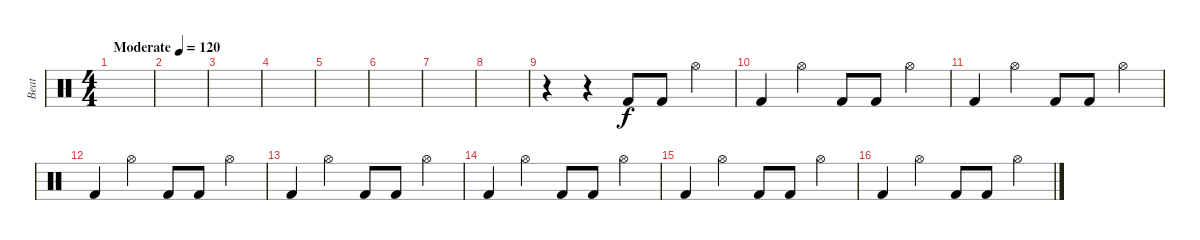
\track ("Beat" "Beat") {instrument percussion}
\staff {score}
\articulation defaults
\ts (4 4)
\tempo (120 "Moderate")
\clef neutral
\ks c
|
|
|
|
|
|
|
|
r.4 r.4 "Kick (hit) 2".8 "Kick (hit) 2".8 "Hi-Hat (open)".4 |
"Kick (hit) 2".4 "Hi-Hat (open)".4 "Kick (hit) 2".8 "Kick (hit) 2".8 "Hi-Hat (open)".4 |
"Kick (hit) 2".4 "Hi-Hat (open)".4 "Kick (hit) 2".8 "Kick (hit) 2".8 "Hi-Hat (open)".4 |
"Kick (hit) 2".4 "Hi-Hat (open)".4 "Kick (hit) 2".8 "Kick (hit) 2".8 "Hi-Hat (open)".4 |
"Kick (hit) 2".4 "Hi-Hat (open)".4 "Kick (hit) 2".8 "Kick (hit) 2".8 "Hi-Hat (open)".4 |
"Kick (hit) 2".4 "Hi-Hat (open)".4 "Kick (hit) 2".8 "Kick (hit) 2".8 "Hi-Hat (open)".4 |
"Kick (hit) 2".4 "Hi-Hat (open)".4 "Kick (hit) 2".8 "Kick (hit) 2".8 "Hi-Hat (open)".4 |
"Kick (hit) 2".4 "Hi-Hat (open)".4 "Kick (hit) 2".8 "Kick (hit) 2".8 "Hi-Hat (open)".4
